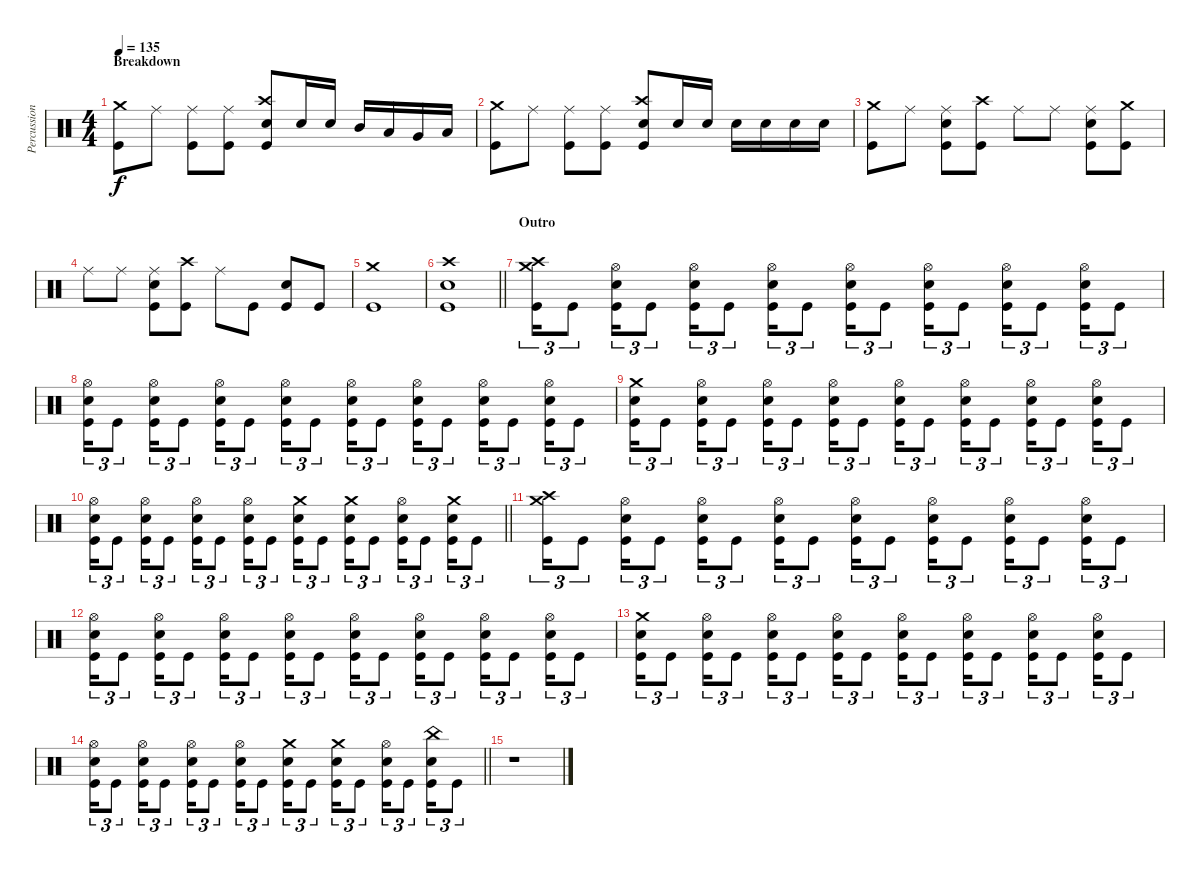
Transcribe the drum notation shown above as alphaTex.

\track ("Percussion" "Percussion") {instrument percussion}
\staff {score}
\articulation defaults
\ts (4 4)
\section ("" "Breakdown")
\tempo 135
\clef neutral
\ks c
("Crash medium (hit)" "Kick (hit)").8{dy f} "Ride (middle)".8 ("Ride (middle)" "Kick (hit)").8 ("Ride (middle)" "Kick (hit)").8 ("Crash high (hit)" "Electric Snare (hit)" "Kick (hit)").8 "Electric Snare (hit)".16 "Electric Snare (hit)".16 "Mid Tom (hit)".16 "Low Tom (hit)".16 "Very Low Tom (hit)".16 "Low Floor Tom (hit)".16 |
("Crash medium (hit)" "Kick (hit)").8 "Ride (middle)".8 ("Ride (middle)" "Kick (hit)").8 ("Ride (middle)" "Kick (hit)").8 ("Crash high (hit)" "Electric Snare (hit)" "Kick (hit)").8 "Electric Snare (hit)".16 "Electric Snare (hit)".16 "Electric Snare (hit)".16 "Electric Snare (hit)".16 "Electric Snare (hit)".16 "Electric Snare (hit)".16 |
("Crash medium (hit)" "Kick (hit)").8 "Ride (middle)".8 ("Ride (middle)" "Electric Snare (hit)" "Kick (hit)").8 ("Crash high (hit)" "Kick (hit)").8 "Ride (middle)".8 "Ride (middle)".8 ("Ride (middle)" "Electric Snare (hit)" "Kick (hit)").8 ("Crash medium (hit)" "Kick (hit)").8 |
"Ride (middle)".8 "Ride (middle)".8 ("Ride (middle)" "Electric Snare (hit)" "Kick (hit)").8 ("Crash high (hit)" "Kick (hit)").8 "Ride (middle)".8 "Kick (hit)".8 ("Electric Snare (hit)" "Kick (hit)").8 "Kick (hit)".8 |
("Crash medium (hit)" "Kick (hit)").1 |
\barLineRight lightlight
("Crash high (hit)" "Electric Snare (hit)" "Kick (hit)").1 |
\section ("" "Outro")
("Crash high (hit)" "Crash medium (hit)" "Kick (hit)").16{tu (3 2)} "Kick (hit)".8{tu (3 2)} ("Hi-Hat (open)" "Electric Snare (hit)" "Kick (hit)").16{tu (3 2)} "Kick (hit)".8{tu (3 2)} ("Hi-Hat (open)" "Electric Snare (hit)" "Kick (hit)").16{tu (3 2)} "Kick (hit)".8{tu (3 2)} ("Hi-Hat (open)" "Electric Snare (hit)" "Kick (hit)").16{tu (3 2)} "Kick (hit)".8{tu (3 2)} ("Hi-Hat (open)" "Electric Snare (hit)" "Kick (hit)").16{tu (3 2)} "Kick (hit)".8{tu (3 2)} ("Hi-Hat (open)" "Electric Snare (hit)" "Kick (hit)").16{tu (3 2)} "Kick (hit)".8{tu (3 2)} ("Hi-Hat (open)" "Electric Snare (hit)" "Kick (hit)").16{tu (3 2)} "Kick (hit)".8{tu (3 2)} ("Hi-Hat (open)" "Electric Snare (hit)" "Kick (hit)").16{tu (3 2)} "Kick (hit)".8{tu (3 2)} |
("Hi-Hat (open)" "Electric Snare (hit)" "Kick (hit)").16{tu (3 2)} "Kick (hit)".8{tu (3 2)} ("Hi-Hat (open)" "Electric Snare (hit)" "Kick (hit)").16{tu (3 2)} "Kick (hit)".8{tu (3 2)} ("Hi-Hat (open)" "Electric Snare (hit)" "Kick (hit)").16{tu (3 2)} "Kick (hit)".8{tu (3 2)} ("Hi-Hat (open)" "Electric Snare (hit)" "Kick (hit)").16{tu (3 2)} "Kick (hit)".8{tu (3 2)} ("Hi-Hat (open)" "Electric Snare (hit)" "Kick (hit)").16{tu (3 2)} "Kick (hit)".8{tu (3 2)} ("Hi-Hat (open)" "Electric Snare (hit)" "Kick (hit)").16{tu (3 2)} "Kick (hit)".8{tu (3 2)} ("Hi-Hat (open)" "Electric Snare (hit)" "Kick (hit)").16{tu (3 2)} "Kick (hit)".8{tu (3 2)} ("Hi-Hat (open)" "Electric Snare (hit)" "Kick (hit)").16{tu (3 2)} "Kick (hit)".8{tu (3 2)} |
("Crash medium (hit)" "Electric Snare (hit)" "Kick (hit)").16{tu (3 2)} "Kick (hit)".8{tu (3 2)} ("Hi-Hat (open)" "Electric Snare (hit)" "Kick (hit)").16{tu (3 2)} "Kick (hit)".8{tu (3 2)} ("Hi-Hat (open)" "Electric Snare (hit)" "Kick (hit)").16{tu (3 2)} "Kick (hit)".8{tu (3 2)} ("Hi-Hat (open)" "Electric Snare (hit)" "Kick (hit)").16{tu (3 2)} "Kick (hit)".8{tu (3 2)} ("Hi-Hat (open)" "Electric Snare (hit)" "Kick (hit)").16{tu (3 2)} "Kick (hit)".8{tu (3 2)} ("Hi-Hat (open)" "Electric Snare (hit)" "Kick (hit)").16{tu (3 2)} "Kick (hit)".8{tu (3 2)} ("Hi-Hat (open)" "Electric Snare (hit)" "Kick (hit)").16{tu (3 2)} "Kick (hit)".8{tu (3 2)} ("Hi-Hat (open)" "Electric Snare (hit)" "Kick (hit)").16{tu (3 2)} "Kick (hit)".8{tu (3 2)} |
\barLineRight lightlight
("Hi-Hat (open)" "Electric Snare (hit)" "Kick (hit)").16{tu (3 2)} "Kick (hit)".8{tu (3 2)} ("Hi-Hat (open)" "Electric Snare (hit)" "Kick (hit)").16{tu (3 2)} "Kick (hit)".8{tu (3 2)} ("Hi-Hat (open)" "Electric Snare (hit)" "Kick (hit)").16{tu (3 2)} "Kick (hit)".8{tu (3 2)} ("Hi-Hat (open)" "Electric Snare (hit)" "Kick (hit)").16{tu (3 2)} "Kick (hit)".8{tu (3 2)} ("Crash medium (hit)" "Electric Snare (hit)" "Kick (hit)").16{tu (3 2)} "Kick (hit)".8{tu (3 2)} ("Crash medium (hit)" "Electric Snare (hit)" "Kick (hit)").16{tu (3 2)} "Kick (hit)".8{tu (3 2)} ("Hi-Hat (open)" "Electric Snare (hit)" "Kick (hit)").16{tu (3 2)} "Kick (hit)".8{tu (3 2)} ("Crash medium (hit)" "Electric Snare (hit)" "Kick (hit)").16{tu (3 2)} "Kick (hit)".8{tu (3 2)} |
("Crash high (hit)" "Crash medium (hit)" "Kick (hit)").16{tu (3 2)} "Kick (hit)".8{tu (3 2)} ("Hi-Hat (open)" "Electric Snare (hit)" "Kick (hit)").16{tu (3 2)} "Kick (hit)".8{tu (3 2)} ("Hi-Hat (open)" "Electric Snare (hit)" "Kick (hit)").16{tu (3 2)} "Kick (hit)".8{tu (3 2)} ("Hi-Hat (open)" "Electric Snare (hit)" "Kick (hit)").16{tu (3 2)} "Kick (hit)".8{tu (3 2)} ("Hi-Hat (open)" "Electric Snare (hit)" "Kick (hit)").16{tu (3 2)} "Kick (hit)".8{tu (3 2)} ("Hi-Hat (open)" "Electric Snare (hit)" "Kick (hit)").16{tu (3 2)} "Kick (hit)".8{tu (3 2)} ("Hi-Hat (open)" "Electric Snare (hit)" "Kick (hit)").16{tu (3 2)} "Kick (hit)".8{tu (3 2)} ("Hi-Hat (open)" "Electric Snare (hit)" "Kick (hit)").16{tu (3 2)} "Kick (hit)".8{tu (3 2)} |
("Hi-Hat (open)" "Electric Snare (hit)" "Kick (hit)").16{tu (3 2)} "Kick (hit)".8{tu (3 2)} ("Hi-Hat (open)" "Electric Snare (hit)" "Kick (hit)").16{tu (3 2)} "Kick (hit)".8{tu (3 2)} ("Hi-Hat (open)" "Electric Snare (hit)" "Kick (hit)").16{tu (3 2)} "Kick (hit)".8{tu (3 2)} ("Hi-Hat (open)" "Electric Snare (hit)" "Kick (hit)").16{tu (3 2)} "Kick (hit)".8{tu (3 2)} ("Hi-Hat (open)" "Electric Snare (hit)" "Kick (hit)").16{tu (3 2)} "Kick (hit)".8{tu (3 2)} ("Hi-Hat (open)" "Electric Snare (hit)" "Kick (hit)").16{tu (3 2)} "Kick (hit)".8{tu (3 2)} ("Hi-Hat (open)" "Electric Snare (hit)" "Kick (hit)").16{tu (3 2)} "Kick (hit)".8{tu (3 2)} ("Hi-Hat (open)" "Electric Snare (hit)" "Kick (hit)").16{tu (3 2)} "Kick (hit)".8{tu (3 2)} |
("Crash medium (hit)" "Electric Snare (hit)" "Kick (hit)").16{tu (3 2)} "Kick (hit)".8{tu (3 2)} ("Hi-Hat (open)" "Electric Snare (hit)" "Kick (hit)").16{tu (3 2)} "Kick (hit)".8{tu (3 2)} ("Hi-Hat (open)" "Electric Snare (hit)" "Kick (hit)").16{tu (3 2)} "Kick (hit)".8{tu (3 2)} ("Hi-Hat (open)" "Electric Snare (hit)" "Kick (hit)").16{tu (3 2)} "Kick (hit)".8{tu (3 2)} ("Hi-Hat (open)" "Electric Snare (hit)" "Kick (hit)").16{tu (3 2)} "Kick (hit)".8{tu (3 2)} ("Hi-Hat (open)" "Electric Snare (hit)" "Kick (hit)").16{tu (3 2)} "Kick (hit)".8{tu (3 2)} ("Hi-Hat (open)" "Electric Snare (hit)" "Kick (hit)").16{tu (3 2)} "Kick (hit)".8{tu (3 2)} ("Hi-Hat (open)" "Electric Snare (hit)" "Kick (hit)").16{tu (3 2)} "Kick (hit)".8{tu (3 2)} |
\barLineRight lightlight
("Hi-Hat (open)" "Electric Snare (hit)" "Kick (hit)").16{tu (3 2)} "Kick (hit)".8{tu (3 2)} ("Hi-Hat (open)" "Electric Snare (hit)" "Kick (hit)").16{tu (3 2)} "Kick (hit)".8{tu (3 2)} ("Hi-Hat (open)" "Electric Snare (hit)" "Kick (hit)").16{tu (3 2)} "Kick (hit)".8{tu (3 2)} ("Hi-Hat (open)" "Electric Snare (hit)" "Kick (hit)").16{tu (3 2)} "Kick (hit)".8{tu (3 2)} ("Crash medium (hit)" "Electric Snare (hit)" "Kick (hit)").16{tu (3 2)} "Kick (hit)".8{tu (3 2)} ("Crash medium (hit)" "Electric Snare (hit)" "Kick (hit)").16{tu (3 2)} "Kick (hit)".8{tu (3 2)} ("Hi-Hat (open)" "Electric Snare (hit)" "Kick (hit)").16{tu (3 2)} "Kick (hit)".8{tu (3 2)} ("China (hit)" "Electric Snare (hit)" "Kick (hit)").16{tu (3 2)} "Kick (hit)".8{tu (3 2)} |
r.1
